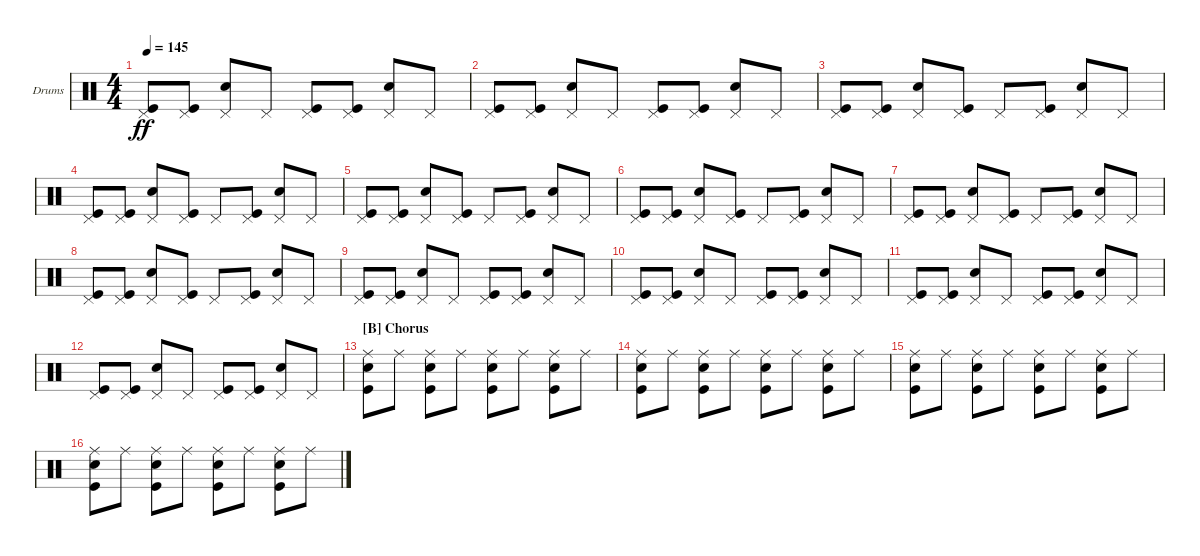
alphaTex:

\bracketExtendMode groupsimilarinstruments
\firstSystemTrackNameOrientation horizontal
\otherSystemsTrackNameOrientation horizontal
\track ("Fabrizio Moretti" "Drums") {instrument percussion}
\staff {score}
\articulation defaults
\ts (4 4)
\tempo 145
\clef neutral
\ks c
("Pedal Hi-Hat (hit)" "Kick (hit)").8{dy ff} ("Pedal Hi-Hat (hit)" "Kick (hit)").8 ("Pedal Hi-Hat (hit)" "Snare (hit) 2").8 "Pedal Hi-Hat (hit)".8 ("Pedal Hi-Hat (hit)" "Kick (hit)").8 ("Pedal Hi-Hat (hit)" "Kick (hit)").8 ("Pedal Hi-Hat (hit)" "Snare (hit) 2").8 "Pedal Hi-Hat (hit)".8 |
("Pedal Hi-Hat (hit)" "Kick (hit)").8 ("Pedal Hi-Hat (hit)" "Kick (hit)").8 ("Pedal Hi-Hat (hit)" "Snare (hit) 2").8 "Pedal Hi-Hat (hit)".8 ("Pedal Hi-Hat (hit)" "Kick (hit)").8 ("Pedal Hi-Hat (hit)" "Kick (hit)").8 ("Pedal Hi-Hat (hit)" "Snare (hit) 2").8 "Pedal Hi-Hat (hit)".8 |
("Pedal Hi-Hat (hit)" "Kick (hit)").8 ("Pedal Hi-Hat (hit)" "Kick (hit)").8 ("Pedal Hi-Hat (hit)" "Snare (hit) 2").8 ("Pedal Hi-Hat (hit)" "Kick (hit)").8 "Pedal Hi-Hat (hit)".8 ("Pedal Hi-Hat (hit)" "Kick (hit)").8 ("Pedal Hi-Hat (hit)" "Snare (hit) 2").8 "Pedal Hi-Hat (hit)".8 |
("Pedal Hi-Hat (hit)" "Kick (hit)").8 ("Pedal Hi-Hat (hit)" "Kick (hit)").8 ("Pedal Hi-Hat (hit)" "Snare (hit) 2").8 ("Pedal Hi-Hat (hit)" "Kick (hit)").8 "Pedal Hi-Hat (hit)".8 ("Pedal Hi-Hat (hit)" "Kick (hit)").8 ("Pedal Hi-Hat (hit)" "Snare (hit) 2").8 "Pedal Hi-Hat (hit)".8 |
("Pedal Hi-Hat (hit)" "Kick (hit)").8 ("Pedal Hi-Hat (hit)" "Kick (hit)").8 ("Pedal Hi-Hat (hit)" "Snare (hit) 2").8 ("Pedal Hi-Hat (hit)" "Kick (hit)").8 "Pedal Hi-Hat (hit)".8 ("Pedal Hi-Hat (hit)" "Kick (hit)").8 ("Pedal Hi-Hat (hit)" "Snare (hit) 2").8 "Pedal Hi-Hat (hit)".8 |
("Pedal Hi-Hat (hit)" "Kick (hit)").8 ("Pedal Hi-Hat (hit)" "Kick (hit)").8 ("Pedal Hi-Hat (hit)" "Snare (hit) 2").8 ("Pedal Hi-Hat (hit)" "Kick (hit)").8 "Pedal Hi-Hat (hit)".8 ("Pedal Hi-Hat (hit)" "Kick (hit)").8 ("Pedal Hi-Hat (hit)" "Snare (hit) 2").8 "Pedal Hi-Hat (hit)".8 |
("Pedal Hi-Hat (hit)" "Kick (hit)").8 ("Pedal Hi-Hat (hit)" "Kick (hit)").8 ("Pedal Hi-Hat (hit)" "Snare (hit) 2").8 ("Pedal Hi-Hat (hit)" "Kick (hit)").8 "Pedal Hi-Hat (hit)".8 ("Pedal Hi-Hat (hit)" "Kick (hit)").8 ("Pedal Hi-Hat (hit)" "Snare (hit) 2").8 "Pedal Hi-Hat (hit)".8 |
("Pedal Hi-Hat (hit)" "Kick (hit)").8 ("Pedal Hi-Hat (hit)" "Kick (hit)").8 ("Pedal Hi-Hat (hit)" "Snare (hit) 2").8 ("Pedal Hi-Hat (hit)" "Kick (hit)").8 "Pedal Hi-Hat (hit)".8 ("Pedal Hi-Hat (hit)" "Kick (hit)").8 ("Pedal Hi-Hat (hit)" "Snare (hit) 2").8 "Pedal Hi-Hat (hit)".8 |
("Pedal Hi-Hat (hit)" "Kick (hit)").8 ("Pedal Hi-Hat (hit)" "Kick (hit)").8 ("Pedal Hi-Hat (hit)" "Snare (hit) 2").8 "Pedal Hi-Hat (hit)".8 ("Pedal Hi-Hat (hit)" "Kick (hit)").8 ("Pedal Hi-Hat (hit)" "Kick (hit)").8 ("Pedal Hi-Hat (hit)" "Snare (hit) 2").8 "Pedal Hi-Hat (hit)".8 |
("Pedal Hi-Hat (hit)" "Kick (hit)").8 ("Pedal Hi-Hat (hit)" "Kick (hit)").8 ("Pedal Hi-Hat (hit)" "Snare (hit) 2").8 "Pedal Hi-Hat (hit)".8 ("Pedal Hi-Hat (hit)" "Kick (hit)").8 ("Pedal Hi-Hat (hit)" "Kick (hit)").8 ("Pedal Hi-Hat (hit)" "Snare (hit) 2").8 "Pedal Hi-Hat (hit)".8 |
("Pedal Hi-Hat (hit)" "Kick (hit)").8 ("Pedal Hi-Hat (hit)" "Kick (hit)").8 ("Pedal Hi-Hat (hit)" "Snare (hit) 2").8 "Pedal Hi-Hat (hit)".8 ("Pedal Hi-Hat (hit)" "Kick (hit)").8 ("Pedal Hi-Hat (hit)" "Kick (hit)").8 ("Pedal Hi-Hat (hit)" "Snare (hit) 2").8 "Pedal Hi-Hat (hit)".8 |
("Pedal Hi-Hat (hit)" "Kick (hit)").8 ("Pedal Hi-Hat (hit)" "Kick (hit)").8 ("Pedal Hi-Hat (hit)" "Snare (hit) 2").8 "Pedal Hi-Hat (hit)".8 ("Pedal Hi-Hat (hit)" "Kick (hit)").8 ("Pedal Hi-Hat (hit)" "Kick (hit)").8 ("Pedal Hi-Hat (hit)" "Snare (hit) 2").8 "Pedal Hi-Hat (hit)".8 |
\section ("B" "Chorus")
("Ride (middle)" "Snare (hit) 2" "Kick (hit)").8 "Ride (middle)".8 ("Ride (middle)" "Snare (hit) 2" "Kick (hit)").8 "Ride (middle)".8 ("Ride (middle)" "Snare (hit) 2" "Kick (hit)").8 "Ride (middle)".8 ("Ride (middle)" "Snare (hit) 2" "Kick (hit)").8 "Ride (middle)".8 |
("Ride (middle)" "Snare (hit) 2" "Kick (hit)").8 "Ride (middle)".8 ("Ride (middle)" "Snare (hit) 2" "Kick (hit)").8 "Ride (middle)".8 ("Ride (middle)" "Snare (hit) 2" "Kick (hit)").8 "Ride (middle)".8 ("Ride (middle)" "Snare (hit) 2" "Kick (hit)").8 "Ride (middle)".8 |
("Ride (middle)" "Snare (hit) 2" "Kick (hit)").8 "Ride (middle)".8 ("Ride (middle)" "Snare (hit) 2" "Kick (hit)").8 "Ride (middle)".8 ("Ride (middle)" "Snare (hit) 2" "Kick (hit)").8 "Ride (middle)".8 ("Ride (middle)" "Snare (hit) 2" "Kick (hit)").8 "Ride (middle)".8 |
("Ride (middle)" "Snare (hit) 2" "Kick (hit)").8 "Ride (middle)".8 ("Ride (middle)" "Snare (hit) 2" "Kick (hit)").8 "Ride (middle)".8 ("Ride (middle)" "Snare (hit) 2" "Kick (hit)").8 "Ride (middle)".8 ("Ride (middle)" "Snare (hit) 2" "Kick (hit)").8 "Ride (middle)".8
